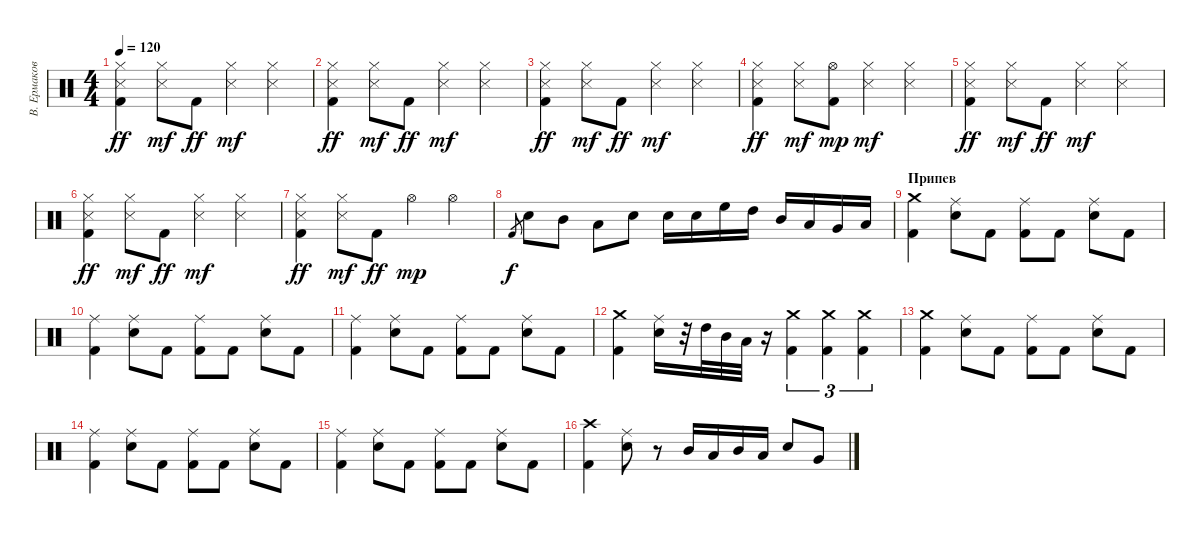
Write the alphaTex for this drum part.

\track ("В. Ермаков" "В. Ермаков") {instrument percussion}
\staff {score}
\articulation defaults
\ts (4 4)
\tempo 120
\clef neutral
\ks c
("Snare (side stick) 3" "Kick (hit) 2" "Hi-Hat (closed)").4{dy ff} ("Snare (side stick) 3" "Hi-Hat (closed)").8{dy mf} "Kick (hit) 2".8{dy ff} ("Snare (side stick) 3" "Hi-Hat (closed)").4{dy mf} ("Snare (side stick) 3" "Hi-Hat (closed)").4 |
("Snare (side stick) 3" "Kick (hit) 2" "Hi-Hat (closed)").4{dy ff} ("Snare (side stick) 3" "Hi-Hat (closed)").8{dy mf} "Kick (hit) 2".8{dy ff} ("Snare (side stick) 3" "Hi-Hat (closed)").4{dy mf} ("Snare (side stick) 3" "Hi-Hat (closed)").4 |
("Snare (side stick) 3" "Kick (hit) 2" "Hi-Hat (closed)").4{dy ff} ("Snare (side stick) 3" "Hi-Hat (closed)").8{dy mf} "Kick (hit) 2".8{dy ff} ("Snare (side stick) 3" "Hi-Hat (closed)").4{dy mf} ("Snare (side stick) 3" "Hi-Hat (closed)").4 |
("Snare (side stick) 3" "Kick (hit) 2" "Hi-Hat (closed)").4{dy ff} ("Snare (side stick) 3" "Hi-Hat (closed)").8{dy mf} ("Kick (hit) 2" "Hi-Hat (open)").8{dy mp} ("Snare (side stick) 3" "Hi-Hat (closed)").4{dy mf} ("Snare (side stick) 3" "Hi-Hat (closed)").4 |
("Snare (side stick) 3" "Kick (hit) 2" "Hi-Hat (closed)").4{dy ff} ("Snare (side stick) 3" "Hi-Hat (closed)").8{dy mf} "Kick (hit) 2".8{dy ff} ("Snare (side stick) 3" "Hi-Hat (closed)").4{dy mf} ("Snare (side stick) 3" "Hi-Hat (closed)").4 |
("Snare (side stick) 3" "Kick (hit) 2" "Hi-Hat (closed)").4{dy ff} ("Snare (side stick) 3" "Hi-Hat (closed)").8{dy mf} "Kick (hit) 2".8{dy ff} ("Snare (side stick) 3" "Hi-Hat (closed)").4{dy mf} ("Snare (side stick) 3" "Hi-Hat (closed)").4 |
("Snare (side stick) 3" "Kick (hit) 2" "Hi-Hat (closed)").4{dy ff} ("Snare (side stick) 3" "Hi-Hat (closed)").8{dy mf} "Kick (hit) 2".8{dy ff} "Hi-Hat (open)".4{dy mp} "Hi-Hat (open)".4 |
"Kick (hit) 2".8{gr dy f} "Electric Snare (hit)".8 "Mid Tom (hit)".8 "Low Tom (hit)".8 "Electric Snare (hit)".8 "Electric Snare (hit)".16 "Electric Snare (hit)".16 "High Floor Tom (hit)".16 "High Tom (hit)".16 "Mid Tom (hit)".16 "Low Tom (hit)".16 "Very Low Tom (hit)".16 "Low Floor Tom (hit)".16 |
\section ("" "Припев")
("Crash medium (hit)" "Kick (hit) 2").4 ("Ride (middle)" "Electric Snare (hit)").8 "Kick (hit) 2".8 ("Ride (middle)" "Kick (hit) 2").8 "Kick (hit) 2".8 ("Ride (middle)" "Electric Snare (hit)").8 "Kick (hit) 2".8 |
("Ride (middle)" "Kick (hit) 2").4 ("Ride (middle)" "Electric Snare (hit)").8 "Kick (hit) 2".8 ("Ride (middle)" "Kick (hit) 2").8 "Kick (hit) 2".8 ("Ride (middle)" "Electric Snare (hit)").8 "Kick (hit) 2".8 |
("Ride (middle)" "Kick (hit) 2").4 ("Ride (middle)" "Electric Snare (hit)").8 "Kick (hit) 2".8 ("Ride (middle)" "Kick (hit) 2").8 "Kick (hit) 2".8 ("Ride (middle)" "Electric Snare (hit)").8 "Kick (hit) 2".8 |
("Crash medium (hit)" "Kick (hit) 2").4 ("Ride (middle)" "Electric Snare (hit)").16 r.32 "High Tom (hit)".32 "Mid Tom (hit)".32 "Low Tom (hit)".32 r.16 ("Crash medium (hit)" "Kick (hit) 2").4{tu (3 2)} ("Crash medium (hit)" "Kick (hit) 2").4{tu (3 2)} ("Crash medium (hit)" "Kick (hit) 2").4{tu (3 2)} |
("Crash medium (hit)" "Kick (hit) 2").4 ("Ride (middle)" "Electric Snare (hit)").8 "Kick (hit) 2".8 ("Ride (middle)" "Kick (hit) 2").8 "Kick (hit) 2".8 ("Ride (middle)" "Electric Snare (hit)").8 "Kick (hit) 2".8 |
("Ride (middle)" "Kick (hit) 2").4 ("Ride (middle)" "Electric Snare (hit)").8 "Kick (hit) 2".8 ("Ride (middle)" "Kick (hit) 2").8 "Kick (hit) 2".8 ("Ride (middle)" "Electric Snare (hit)").8 "Kick (hit) 2".8 |
("Ride (middle)" "Kick (hit) 2").4 ("Ride (middle)" "Electric Snare (hit)").8 "Kick (hit) 2".8 ("Ride (middle)" "Kick (hit) 2").8 "Kick (hit) 2".8 ("Ride (middle)" "Electric Snare (hit)").8 "Kick (hit) 2".8 |
("Crash high (hit)" "Kick (hit) 2").4 ("Ride (middle)" "Electric Snare (hit)").8 r.8 "Mid Tom (hit)".16 "Low Tom (hit)".16 "Mid Tom (hit)".16 "Low Tom (hit)".16 "Electric Snare (hit)".8 "Very Low Tom (hit)".8
